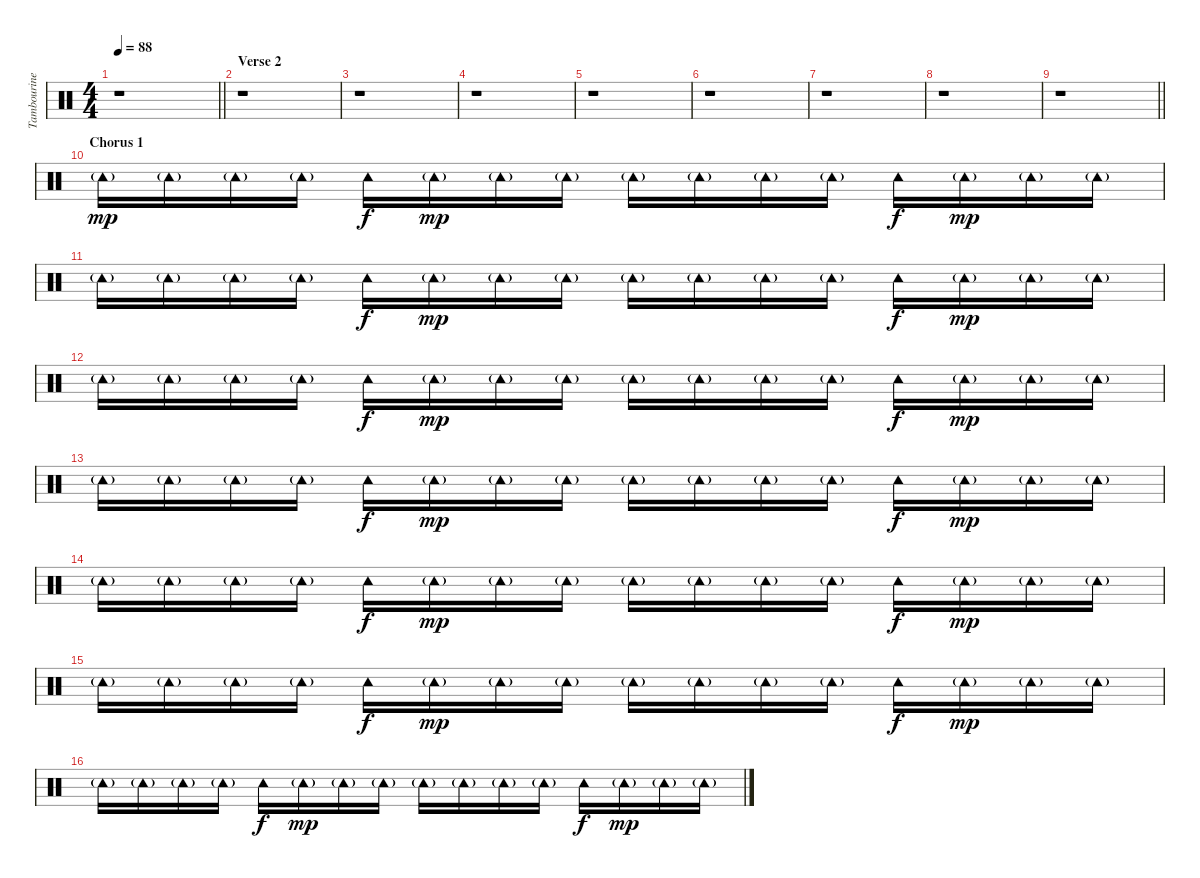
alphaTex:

\track ("Tambourine" "Tambourine") {instrument percussion}
\staff {score}
\articulation defaults
\ts (4 4)
\tempo 88
\clef neutral
\barLineRight lightlight
\ks c
r.1{dy mp} |
\section ("" "Verse 2")
r.1 |
r.1 |
r.1 |
r.1 |
r.1 |
r.1 |
r.1 |
\barLineRight lightlight
r.1 |
\section ("" "Chorus 1")
"Tambourine (hit)"{g}.16 "Tambourine (hit)"{g}.16 "Tambourine (hit)"{g}.16 "Tambourine (hit)"{g}.16 "Tambourine (hit)".16{dy f} "Tambourine (hit)"{g}.16{dy mp} "Tambourine (hit)"{g}.16 "Tambourine (hit)"{g}.16 "Tambourine (hit)"{g}.16 "Tambourine (hit)"{g}.16 "Tambourine (hit)"{g}.16 "Tambourine (hit)"{g}.16 "Tambourine (hit)".16{dy f} "Tambourine (hit)"{g}.16{dy mp} "Tambourine (hit)"{g}.16 "Tambourine (hit)"{g}.16 |
"Tambourine (hit)"{g}.16 "Tambourine (hit)"{g}.16 "Tambourine (hit)"{g}.16 "Tambourine (hit)"{g}.16 "Tambourine (hit)".16{dy f} "Tambourine (hit)"{g}.16{dy mp} "Tambourine (hit)"{g}.16 "Tambourine (hit)"{g}.16 "Tambourine (hit)"{g}.16 "Tambourine (hit)"{g}.16 "Tambourine (hit)"{g}.16 "Tambourine (hit)"{g}.16 "Tambourine (hit)".16{dy f} "Tambourine (hit)"{g}.16{dy mp} "Tambourine (hit)"{g}.16 "Tambourine (hit)"{g}.16 |
"Tambourine (hit)"{g}.16 "Tambourine (hit)"{g}.16 "Tambourine (hit)"{g}.16 "Tambourine (hit)"{g}.16 "Tambourine (hit)".16{dy f} "Tambourine (hit)"{g}.16{dy mp} "Tambourine (hit)"{g}.16 "Tambourine (hit)"{g}.16 "Tambourine (hit)"{g}.16 "Tambourine (hit)"{g}.16 "Tambourine (hit)"{g}.16 "Tambourine (hit)"{g}.16 "Tambourine (hit)".16{dy f} "Tambourine (hit)"{g}.16{dy mp} "Tambourine (hit)"{g}.16 "Tambourine (hit)"{g}.16 |
"Tambourine (hit)"{g}.16 "Tambourine (hit)"{g}.16 "Tambourine (hit)"{g}.16 "Tambourine (hit)"{g}.16 "Tambourine (hit)".16{dy f} "Tambourine (hit)"{g}.16{dy mp} "Tambourine (hit)"{g}.16 "Tambourine (hit)"{g}.16 "Tambourine (hit)"{g}.16 "Tambourine (hit)"{g}.16 "Tambourine (hit)"{g}.16 "Tambourine (hit)"{g}.16 "Tambourine (hit)".16{dy f} "Tambourine (hit)"{g}.16{dy mp} "Tambourine (hit)"{g}.16 "Tambourine (hit)"{g}.16 |
"Tambourine (hit)"{g}.16 "Tambourine (hit)"{g}.16 "Tambourine (hit)"{g}.16 "Tambourine (hit)"{g}.16 "Tambourine (hit)".16{dy f} "Tambourine (hit)"{g}.16{dy mp} "Tambourine (hit)"{g}.16 "Tambourine (hit)"{g}.16 "Tambourine (hit)"{g}.16 "Tambourine (hit)"{g}.16 "Tambourine (hit)"{g}.16 "Tambourine (hit)"{g}.16 "Tambourine (hit)".16{dy f} "Tambourine (hit)"{g}.16{dy mp} "Tambourine (hit)"{g}.16 "Tambourine (hit)"{g}.16 |
"Tambourine (hit)"{g}.16 "Tambourine (hit)"{g}.16 "Tambourine (hit)"{g}.16 "Tambourine (hit)"{g}.16 "Tambourine (hit)".16{dy f} "Tambourine (hit)"{g}.16{dy mp} "Tambourine (hit)"{g}.16 "Tambourine (hit)"{g}.16 "Tambourine (hit)"{g}.16 "Tambourine (hit)"{g}.16 "Tambourine (hit)"{g}.16 "Tambourine (hit)"{g}.16 "Tambourine (hit)".16{dy f} "Tambourine (hit)"{g}.16{dy mp} "Tambourine (hit)"{g}.16 "Tambourine (hit)"{g}.16 |
"Tambourine (hit)"{g}.16 "Tambourine (hit)"{g}.16 "Tambourine (hit)"{g}.16 "Tambourine (hit)"{g}.16 "Tambourine (hit)".16{dy f} "Tambourine (hit)"{g}.16{dy mp} "Tambourine (hit)"{g}.16 "Tambourine (hit)"{g}.16 "Tambourine (hit)"{g}.16 "Tambourine (hit)"{g}.16 "Tambourine (hit)"{g}.16 "Tambourine (hit)"{g}.16 "Tambourine (hit)".16{dy f} "Tambourine (hit)"{g}.16{dy mp} "Tambourine (hit)"{g}.16 "Tambourine (hit)"{g}.16
